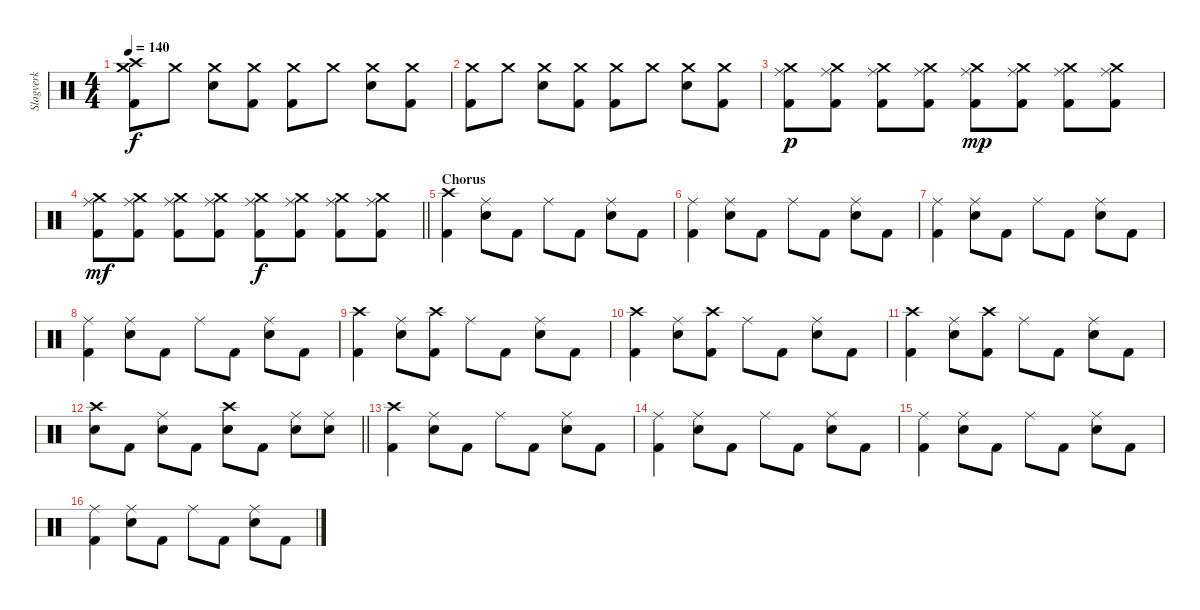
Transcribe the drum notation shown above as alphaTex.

\track ("Slagverk" "Slagverk") {instrument percussion}
\staff {score}
\articulation defaults
\ts (4 4)
\tempo 140
\clef neutral
\ks c
("Crash high (hit)" "Crash medium (hit)" "Kick (hit) 2").8{dy f} "Crash medium (hit)".8 ("Crash medium (hit)" "Electric Snare (hit)").8 ("Crash medium (hit)" "Kick (hit) 2").8 ("Crash medium (hit)" "Kick (hit) 2").8 "Crash medium (hit)".8 ("Crash medium (hit)" "Electric Snare (hit)").8 ("Crash medium (hit)" "Kick (hit) 2").8 |
("Crash medium (hit)" "Kick (hit) 2").8 "Crash medium (hit)".8 ("Crash medium (hit)" "Electric Snare (hit)").8 ("Crash medium (hit)" "Kick (hit) 2").8 ("Crash medium (hit)" "Kick (hit) 2").8 "Crash medium (hit)".8 ("Crash medium (hit)" "Electric Snare (hit)").8 ("Crash medium (hit)" "Kick (hit) 2").8 |
("Crash medium (hit)" "Ride (middle)" "Kick (hit) 2").8{dy p} ("Crash medium (hit)" "Ride (middle)" "Kick (hit) 2").8 ("Crash medium (hit)" "Ride (middle)" "Kick (hit) 2").8 ("Crash medium (hit)" "Ride (middle)" "Kick (hit) 2").8 ("Crash medium (hit)" "Ride (middle)" "Kick (hit) 2").8{dy mp} ("Crash medium (hit)" "Ride (middle)" "Kick (hit) 2").8 ("Crash medium (hit)" "Ride (middle)" "Kick (hit) 2").8 ("Crash medium (hit)" "Ride (middle)" "Kick (hit) 2").8 |
\barLineRight lightlight
("Crash medium (hit)" "Ride (middle)" "Kick (hit) 2").8{dy mf} ("Crash medium (hit)" "Ride (middle)" "Kick (hit) 2").8 ("Crash medium (hit)" "Ride (middle)" "Kick (hit) 2").8 ("Crash medium (hit)" "Ride (middle)" "Kick (hit) 2").8 ("Crash medium (hit)" "Ride (middle)" "Kick (hit) 2").8{dy f} ("Crash medium (hit)" "Ride (middle)" "Kick (hit) 2").8 ("Crash medium (hit)" "Ride (middle)" "Kick (hit) 2").8 ("Crash medium (hit)" "Ride (middle)" "Kick (hit) 2").8 |
\section ("" "Chorus")
("Crash high (hit)" "Kick (hit) 2").4 ("Ride (middle)" "Electric Snare (hit)").8 "Kick (hit) 2".8 "Ride (middle)".8 "Kick (hit) 2".8 ("Ride (middle)" "Electric Snare (hit)").8 "Kick (hit) 2".8 |
("Ride (middle)" "Kick (hit) 2").4 ("Ride (middle)" "Electric Snare (hit)").8 "Kick (hit) 2".8 "Ride (middle)".8 "Kick (hit) 2".8 ("Ride (middle)" "Electric Snare (hit)").8 "Kick (hit) 2".8 |
("Ride (middle)" "Kick (hit) 2").4 ("Ride (middle)" "Electric Snare (hit)").8 "Kick (hit) 2".8 "Ride (middle)".8 "Kick (hit) 2".8 ("Ride (middle)" "Electric Snare (hit)").8 "Kick (hit) 2".8 |
("Ride (middle)" "Kick (hit) 2").4 ("Ride (middle)" "Electric Snare (hit)").8 "Kick (hit) 2".8 "Ride (middle)".8 "Kick (hit) 2".8 ("Ride (middle)" "Electric Snare (hit)").8 "Kick (hit) 2".8 |
("Crash high (hit)" "Kick (hit) 2").4 ("Ride (middle)" "Electric Snare (hit)").8 ("Crash high (hit)" "Kick (hit) 2").8 "Ride (middle)".8 "Kick (hit) 2".8 ("Ride (middle)" "Electric Snare (hit)").8 "Kick (hit) 2".8 |
("Crash high (hit)" "Kick (hit) 2").4 ("Ride (middle)" "Electric Snare (hit)").8 ("Crash high (hit)" "Kick (hit) 2").8 "Ride (middle)".8 "Kick (hit) 2".8 ("Ride (middle)" "Electric Snare (hit)").8 "Kick (hit) 2".8 |
("Crash high (hit)" "Kick (hit) 2").4 ("Ride (middle)" "Electric Snare (hit)").8 ("Crash high (hit)" "Kick (hit) 2").8 "Ride (middle)".8 "Kick (hit) 2".8 ("Ride (middle)" "Electric Snare (hit)").8 "Kick (hit) 2".8 |
\barLineRight lightlight
("Crash high (hit)" "Electric Snare (hit)").8 "Kick (hit) 2".8 ("Ride (middle)" "Electric Snare (hit)").8 "Kick (hit) 2".8 ("Crash high (hit)" "Electric Snare (hit)").8 "Kick (hit) 2".8 ("Ride (middle)" "Electric Snare (hit)").8 ("Ride (middle)" "Electric Snare (hit)").8 |
("Crash high (hit)" "Kick (hit) 2").4 ("Ride (middle)" "Electric Snare (hit)").8 "Kick (hit) 2".8 "Ride (middle)".8 "Kick (hit) 2".8 ("Ride (middle)" "Electric Snare (hit)").8 "Kick (hit) 2".8 |
("Ride (middle)" "Kick (hit) 2").4 ("Ride (middle)" "Electric Snare (hit)").8 "Kick (hit) 2".8 "Ride (middle)".8 "Kick (hit) 2".8 ("Ride (middle)" "Electric Snare (hit)").8 "Kick (hit) 2".8 |
("Ride (middle)" "Kick (hit) 2").4 ("Ride (middle)" "Electric Snare (hit)").8 "Kick (hit) 2".8 "Ride (middle)".8 "Kick (hit) 2".8 ("Ride (middle)" "Electric Snare (hit)").8 "Kick (hit) 2".8 |
("Ride (middle)" "Kick (hit) 2").4 ("Ride (middle)" "Electric Snare (hit)").8 "Kick (hit) 2".8 "Ride (middle)".8 "Kick (hit) 2".8 ("Ride (middle)" "Electric Snare (hit)").8 "Kick (hit) 2".8
